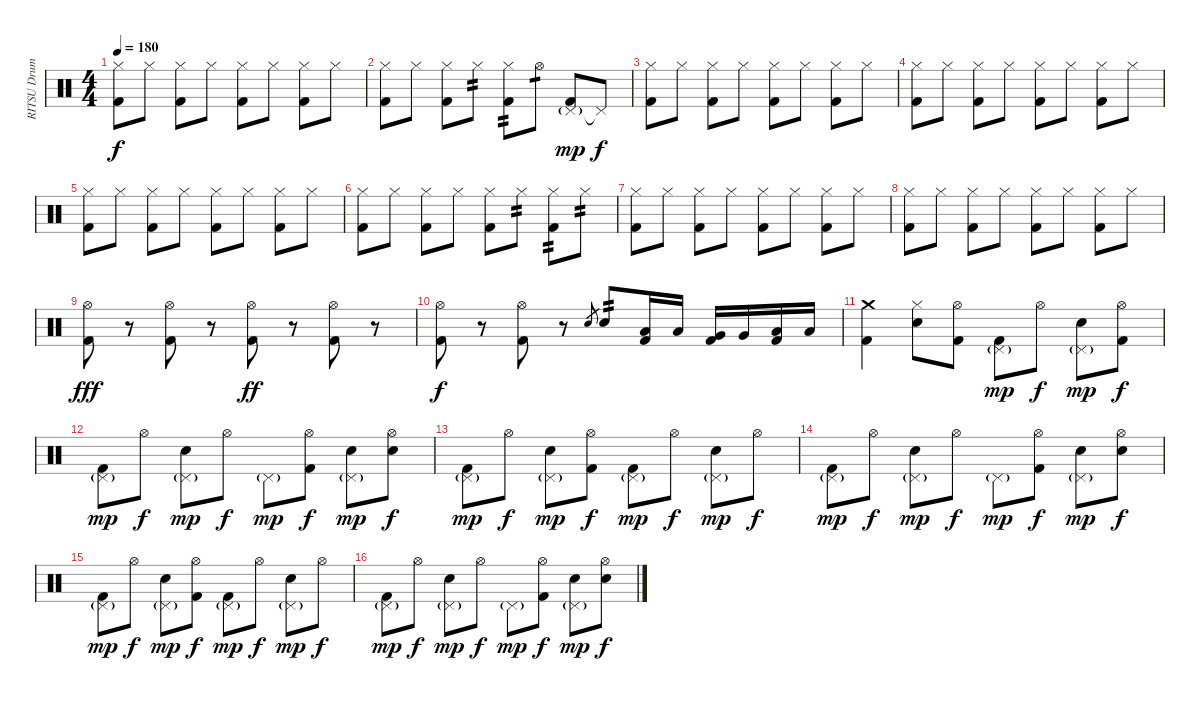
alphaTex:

\track ("RITSU Drums" "RITSU Drum") {instrument percussion}
\staff {score}
\articulation defaults
\ts (4 4)
\tempo 180
\clef neutral
\ks c
("Hi-Hat (closed)" "Kick (hit) 2").8{dy f} "Hi-Hat (closed)".8 ("Hi-Hat (closed)" "Kick (hit) 2").8 "Hi-Hat (closed)".8 ("Hi-Hat (closed)" "Kick (hit) 2").8 "Hi-Hat (closed)".8 ("Hi-Hat (closed)" "Kick (hit) 2").8 "Hi-Hat (closed)".8 |
("Hi-Hat (closed)" "Kick (hit) 2").8 "Hi-Hat (closed)".8 ("Hi-Hat (closed)" "Kick (hit) 2").8 "Hi-Hat (closed)".8{tp 2} ("Hi-Hat (closed)" "Kick (hit) 2").8{tp 2} "Hi-Hat (open)".8{tp 1} ("Pedal Hi-Hat (hit)"{g} "Kick (hit) 2").8{dy mp} "Pedal Hi-Hat (hit)"{t}.8{dy f} |
("Hi-Hat (closed)" "Kick (hit) 2").8 "Hi-Hat (closed)".8 ("Hi-Hat (closed)" "Kick (hit) 2").8 "Hi-Hat (closed)".8 ("Hi-Hat (closed)" "Kick (hit) 2").8 "Hi-Hat (closed)".8 ("Hi-Hat (closed)" "Kick (hit) 2").8 "Hi-Hat (closed)".8 |
("Hi-Hat (closed)" "Kick (hit) 2").8 "Hi-Hat (closed)".8 ("Hi-Hat (closed)" "Kick (hit) 2").8 "Hi-Hat (closed)".8 ("Hi-Hat (closed)" "Kick (hit) 2").8 "Hi-Hat (closed)".8 ("Hi-Hat (closed)" "Kick (hit) 2").8 "Hi-Hat (closed)".8 |
("Hi-Hat (closed)" "Kick (hit) 2").8 "Hi-Hat (closed)".8 ("Hi-Hat (closed)" "Kick (hit) 2").8 "Hi-Hat (closed)".8 ("Hi-Hat (closed)" "Kick (hit) 2").8 "Hi-Hat (closed)".8 ("Hi-Hat (closed)" "Kick (hit) 2").8 "Hi-Hat (closed)".8 |
("Hi-Hat (closed)" "Kick (hit) 2").8 "Hi-Hat (closed)".8 ("Hi-Hat (closed)" "Kick (hit) 2").8 "Hi-Hat (closed)".8 ("Hi-Hat (closed)" "Kick (hit) 2").8 "Hi-Hat (closed)".8{tp 2} ("Hi-Hat (closed)" "Kick (hit) 2").8{tp 2} "Hi-Hat (closed)".8{tp 2} |
("Hi-Hat (closed)" "Kick (hit) 2").8 "Hi-Hat (closed)".8 ("Hi-Hat (closed)" "Kick (hit) 2").8 "Hi-Hat (closed)".8 ("Hi-Hat (closed)" "Kick (hit) 2").8 "Hi-Hat (closed)".8 ("Hi-Hat (closed)" "Kick (hit) 2").8 "Hi-Hat (closed)".8 |
("Hi-Hat (closed)" "Kick (hit) 2").8 "Hi-Hat (closed)".8 ("Hi-Hat (closed)" "Kick (hit) 2").8 "Hi-Hat (closed)".8 ("Hi-Hat (closed)" "Kick (hit) 2").8 "Hi-Hat (closed)".8 ("Hi-Hat (closed)" "Kick (hit) 2").8 "Hi-Hat (closed)".8 |
("Hi-Hat (open)" "Kick (hit) 2").8{dy fff} r.8 ("Hi-Hat (open)" "Kick (hit) 2").8 r.8 ("Hi-Hat (open)" "Kick (hit) 2").8{dy ff} r.8 ("Hi-Hat (open)" "Kick (hit) 2").8 r.8 |
("Hi-Hat (open)" "Kick (hit) 2").8{dy f} r.8 ("Hi-Hat (open)" "Kick (hit) 2").8 r.8 "Electric Snare (hit)".8{gr} "Electric Snare (hit)".8{tp 2} ("Low Tom (hit)" "Kick (hit) 2").16 "Low Tom (hit)".16 ("Very Low Tom (hit)" "Kick (hit) 2").16 "Very Low Tom (hit)".16 ("Low Floor Tom (hit)" "Kick (hit) 2").16 "Low Floor Tom (hit)".16 |
("Crash medium (hit)" "Kick (hit) 2").4 ("Hi-Hat (closed)" "Electric Snare (hit)").8 ("Hi-Hat (open)" "Kick (hit) 2").8 ("Pedal Hi-Hat (hit)"{g} "Kick (hit) 2").8{dy mp} "Hi-Hat (open)".8{dy f} ("Pedal Hi-Hat (hit)"{g} "Electric Snare (hit)").8{dy mp} ("Hi-Hat (open)" "Kick (hit) 2").8{dy f} |
("Pedal Hi-Hat (hit)"{g} "Kick (hit) 2").8{dy mp} "Hi-Hat (open)".8{dy f} ("Pedal Hi-Hat (hit)"{g} "Electric Snare (hit)").8{dy mp} "Hi-Hat (open)".8{dy f} "Pedal Hi-Hat (hit)"{g}.8{dy mp} ("Hi-Hat (open)" "Kick (hit) 2").8{dy f} ("Pedal Hi-Hat (hit)"{g} "Electric Snare (hit)").8{dy mp} ("Hi-Hat (open)" "Electric Snare (hit)").8{dy f} |
("Pedal Hi-Hat (hit)"{g} "Kick (hit) 2").8{dy mp} "Hi-Hat (open)".8{dy f} ("Pedal Hi-Hat (hit)"{g} "Electric Snare (hit)").8{dy mp} ("Hi-Hat (open)" "Kick (hit) 2").8{dy f} ("Pedal Hi-Hat (hit)"{g} "Kick (hit) 2").8{dy mp} "Hi-Hat (open)".8{dy f} ("Pedal Hi-Hat (hit)"{g} "Electric Snare (hit)").8{dy mp} "Hi-Hat (open)".8{dy f} |
("Pedal Hi-Hat (hit)"{g} "Kick (hit) 2").8{dy mp} "Hi-Hat (open)".8{dy f} ("Pedal Hi-Hat (hit)"{g} "Electric Snare (hit)").8{dy mp} "Hi-Hat (open)".8{dy f} "Pedal Hi-Hat (hit)"{g}.8{dy mp} ("Hi-Hat (open)" "Kick (hit) 2").8{dy f} ("Pedal Hi-Hat (hit)"{g} "Electric Snare (hit)").8{dy mp} ("Hi-Hat (open)" "Electric Snare (hit)").8{dy f} |
("Pedal Hi-Hat (hit)"{g} "Kick (hit) 2").8{dy mp} "Hi-Hat (open)".8{dy f} ("Pedal Hi-Hat (hit)"{g} "Electric Snare (hit)").8{dy mp} ("Hi-Hat (open)" "Kick (hit) 2").8{dy f} ("Pedal Hi-Hat (hit)"{g} "Kick (hit) 2").8{dy mp} "Hi-Hat (open)".8{dy f} ("Pedal Hi-Hat (hit)"{g} "Electric Snare (hit)").8{dy mp} "Hi-Hat (open)".8{dy f} |
("Pedal Hi-Hat (hit)"{g} "Kick (hit) 2").8{dy mp} "Hi-Hat (open)".8{dy f} ("Pedal Hi-Hat (hit)"{g} "Electric Snare (hit)").8{dy mp} "Hi-Hat (open)".8{dy f} "Pedal Hi-Hat (hit)"{g}.8{dy mp} ("Hi-Hat (open)" "Kick (hit) 2").8{dy f} ("Pedal Hi-Hat (hit)"{g} "Electric Snare (hit)").8{dy mp} ("Hi-Hat (open)" "Electric Snare (hit)").8{dy f}
